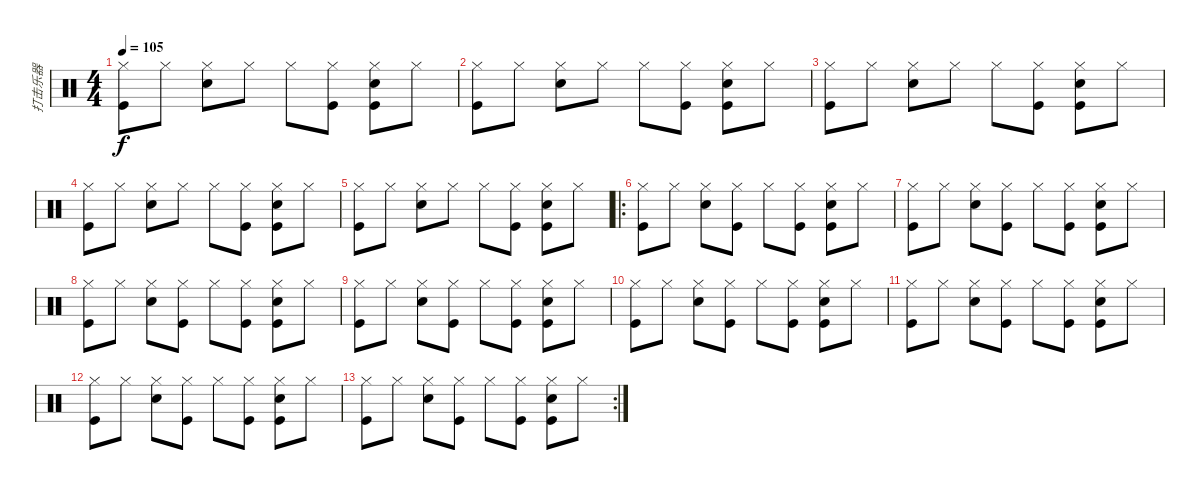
\track ("打击乐器" "打击乐器") {instrument percussion}
\staff {score}
\articulation defaults
\ts (4 4)
\tempo 105
\clef neutral
\ks c
("Hi-Hat (closed)" "Kick (hit)").8{dy f} "Hi-Hat (closed)".8 ("Hi-Hat (closed)" "Snare (hit) 2").8 "Hi-Hat (closed)".8 "Hi-Hat (closed)".8 ("Hi-Hat (closed)" "Kick (hit)").8 ("Hi-Hat (closed)" "Snare (hit) 2" "Kick (hit)").8 "Hi-Hat (closed)".8 |
("Hi-Hat (closed)" "Kick (hit)").8 "Hi-Hat (closed)".8 ("Hi-Hat (closed)" "Snare (hit) 2").8 "Hi-Hat (closed)".8 "Hi-Hat (closed)".8 ("Hi-Hat (closed)" "Kick (hit)").8 ("Hi-Hat (closed)" "Snare (hit) 2" "Kick (hit)").8 "Hi-Hat (closed)".8 |
("Hi-Hat (closed)" "Kick (hit)").8 "Hi-Hat (closed)".8 ("Hi-Hat (closed)" "Snare (hit) 2").8 "Hi-Hat (closed)".8 "Hi-Hat (closed)".8 ("Hi-Hat (closed)" "Kick (hit)").8 ("Hi-Hat (closed)" "Snare (hit) 2" "Kick (hit)").8 "Hi-Hat (closed)".8 |
("Hi-Hat (closed)" "Kick (hit)").8 "Hi-Hat (closed)".8 ("Hi-Hat (closed)" "Snare (hit) 2").8 "Hi-Hat (closed)".8 "Hi-Hat (closed)".8 ("Hi-Hat (closed)" "Kick (hit)").8 ("Hi-Hat (closed)" "Snare (hit) 2" "Kick (hit)").8 "Hi-Hat (closed)".8 |
("Hi-Hat (closed)" "Kick (hit)").8 "Hi-Hat (closed)".8 ("Hi-Hat (closed)" "Snare (hit) 2").8 "Hi-Hat (closed)".8 "Hi-Hat (closed)".8 ("Hi-Hat (closed)" "Kick (hit)").8 ("Hi-Hat (closed)" "Snare (hit) 2" "Kick (hit)").8 "Hi-Hat (closed)".8 |
\ro
("Hi-Hat (closed)" "Kick (hit)").8 "Hi-Hat (closed)".8 ("Hi-Hat (closed)" "Snare (hit) 2").8 ("Hi-Hat (closed)" "Kick (hit)").8 "Hi-Hat (closed)".8 ("Hi-Hat (closed)" "Kick (hit)").8 ("Hi-Hat (closed)" "Snare (hit) 2" "Kick (hit)").8 "Hi-Hat (closed)".8 |
("Hi-Hat (closed)" "Kick (hit)").8 "Hi-Hat (closed)".8 ("Hi-Hat (closed)" "Snare (hit) 2").8 ("Hi-Hat (closed)" "Kick (hit)").8 "Hi-Hat (closed)".8 ("Hi-Hat (closed)" "Kick (hit)").8 ("Hi-Hat (closed)" "Snare (hit) 2" "Kick (hit)").8 "Hi-Hat (closed)".8 |
("Hi-Hat (closed)" "Kick (hit)").8 "Hi-Hat (closed)".8 ("Hi-Hat (closed)" "Snare (hit) 2").8 ("Hi-Hat (closed)" "Kick (hit)").8 "Hi-Hat (closed)".8 ("Hi-Hat (closed)" "Kick (hit)").8 ("Hi-Hat (closed)" "Snare (hit) 2" "Kick (hit)").8 "Hi-Hat (closed)".8 |
("Hi-Hat (closed)" "Kick (hit)").8 "Hi-Hat (closed)".8 ("Hi-Hat (closed)" "Snare (hit) 2").8 ("Hi-Hat (closed)" "Kick (hit)").8 "Hi-Hat (closed)".8 ("Hi-Hat (closed)" "Kick (hit)").8 ("Hi-Hat (closed)" "Snare (hit) 2" "Kick (hit)").8 "Hi-Hat (closed)".8 |
("Hi-Hat (closed)" "Kick (hit)").8 "Hi-Hat (closed)".8 ("Hi-Hat (closed)" "Snare (hit) 2").8 ("Hi-Hat (closed)" "Kick (hit)").8 "Hi-Hat (closed)".8 ("Hi-Hat (closed)" "Kick (hit)").8 ("Hi-Hat (closed)" "Snare (hit) 2" "Kick (hit)").8 "Hi-Hat (closed)".8 |
("Hi-Hat (closed)" "Kick (hit)").8 "Hi-Hat (closed)".8 ("Hi-Hat (closed)" "Snare (hit) 2").8 ("Hi-Hat (closed)" "Kick (hit)").8 "Hi-Hat (closed)".8 ("Hi-Hat (closed)" "Kick (hit)").8 ("Hi-Hat (closed)" "Snare (hit) 2" "Kick (hit)").8 "Hi-Hat (closed)".8 |
("Hi-Hat (closed)" "Kick (hit)").8 "Hi-Hat (closed)".8 ("Hi-Hat (closed)" "Snare (hit) 2").8 ("Hi-Hat (closed)" "Kick (hit)").8 "Hi-Hat (closed)".8 ("Hi-Hat (closed)" "Kick (hit)").8 ("Hi-Hat (closed)" "Snare (hit) 2" "Kick (hit)").8 "Hi-Hat (closed)".8 |
\rc 2
("Hi-Hat (closed)" "Kick (hit)").8 "Hi-Hat (closed)".8 ("Hi-Hat (closed)" "Snare (hit) 2").8 ("Hi-Hat (closed)" "Kick (hit)").8 "Hi-Hat (closed)".8 ("Hi-Hat (closed)" "Kick (hit)").8 ("Hi-Hat (closed)" "Snare (hit) 2" "Kick (hit)").8 "Hi-Hat (closed)".8
